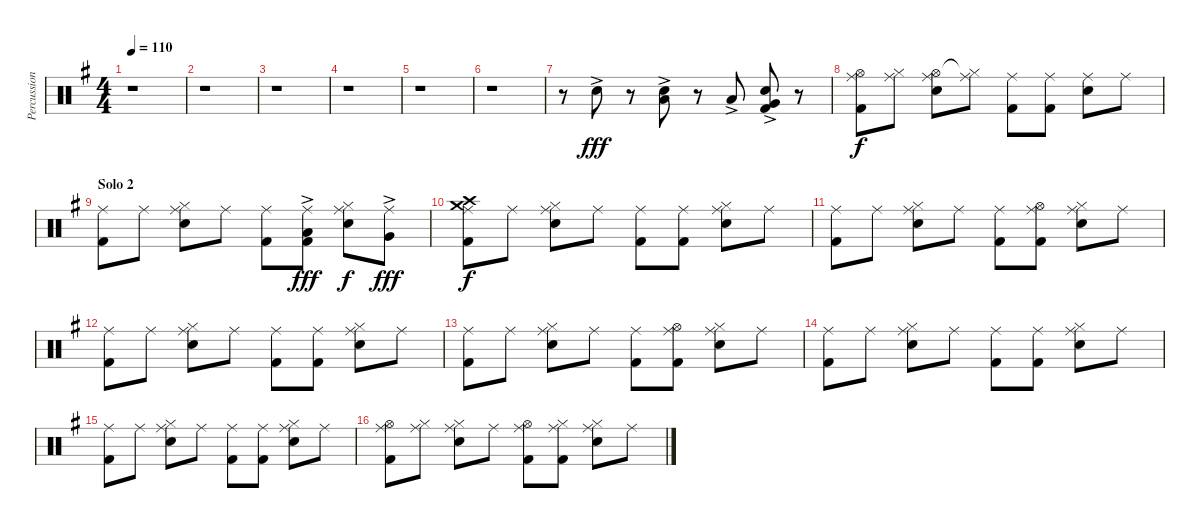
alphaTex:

\track ("Percussion" "Percussion") {instrument percussion}
\staff {score}
\articulation defaults
\ts (4 4)
\tempo 110
\clef neutral
\ks g
r.1{dy fff} |
r.1 |
r.1 |
r.1 |
r.1 |
r.1 |
r.8 "Electric Snare (hit)"{ac}.8 r.8 ("Electric Snare (hit)"{ac} "Low Tom (hit)").8 r.8 "Low Tom (hit)"{ac}.8 ("Electric Snare (hit)"{ac} "Very Low Tom (hit)" "Kick (hit) 2").8 r.8 |
("Ride (middle)" "Hi-Hat (open)" "Kick (hit) 2").8{dy f} ("Ride (middle)" "Hi-Hat (closed)").8 ("Ride (middle)" "Hi-Hat (open)" "Electric Snare (hit)").8 ("Ride (middle)" "Hi-Hat (closed)"{t}).8 ("Ride (middle)" "Kick (hit) 2").8 ("Ride (middle)" "Kick (hit) 2").8 ("Ride (middle)" "Electric Snare (hit)").8 "Ride (middle)".8 |
\section ("" "Solo 2")
("Ride (middle)" "Kick (hit) 2").8 "Ride (middle)".8 ("Ride (middle)" "Hi-Hat (closed)" "Electric Snare (hit)").8 "Ride (middle)".8 ("Ride (middle)" "Kick (hit) 2").8 ("Ride (middle)" "Low Tom (hit)"{ac} "Kick (hit) 2").8{dy fff} ("Ride (middle)" "Hi-Hat (closed)" "Electric Snare (hit)").8{dy f} ("Ride (middle)" "Very Low Tom (hit)"{ac}).8{dy fff} |
("Ride (middle)" "Crash medium (hit)" "Crash high (hit)" "Kick (hit) 2").8{dy f} "Ride (middle)".8 ("Ride (middle)" "Hi-Hat (closed)" "Electric Snare (hit)").8 "Ride (middle)".8 ("Ride (middle)" "Kick (hit) 2").8 ("Ride (middle)" "Kick (hit) 2").8 ("Ride (middle)" "Hi-Hat (closed)" "Electric Snare (hit)").8 "Ride (middle)".8 |
("Ride (middle)" "Kick (hit) 2").8 "Ride (middle)".8 ("Ride (middle)" "Hi-Hat (closed)" "Electric Snare (hit)").8 "Ride (middle)".8 ("Ride (middle)" "Kick (hit) 2").8 ("Ride (middle)" "Hi-Hat (open)" "Kick (hit) 2").8 ("Ride (middle)" "Hi-Hat (closed)" "Electric Snare (hit)").8 "Ride (middle)".8 |
("Ride (middle)" "Kick (hit) 2").8 "Ride (middle)".8 ("Ride (middle)" "Hi-Hat (closed)" "Electric Snare (hit)").8 "Ride (middle)".8 ("Ride (middle)" "Kick (hit) 2").8 ("Ride (middle)" "Kick (hit) 2").8 ("Ride (middle)" "Hi-Hat (closed)" "Electric Snare (hit)").8 "Ride (middle)".8 |
("Ride (middle)" "Kick (hit) 2").8 "Ride (middle)".8 ("Ride (middle)" "Hi-Hat (closed)" "Electric Snare (hit)").8 "Ride (middle)".8 ("Ride (middle)" "Kick (hit) 2").8 ("Ride (middle)" "Hi-Hat (open)" "Kick (hit) 2").8 ("Ride (middle)" "Hi-Hat (closed)" "Electric Snare (hit)").8 "Ride (middle)".8 |
("Ride (middle)" "Kick (hit) 2").8 "Ride (middle)".8 ("Ride (middle)" "Hi-Hat (closed)" "Electric Snare (hit)").8 "Ride (middle)".8 ("Ride (middle)" "Kick (hit) 2").8 ("Ride (middle)" "Kick (hit) 2").8 ("Ride (middle)" "Hi-Hat (closed)" "Electric Snare (hit)").8 "Ride (middle)".8 |
("Ride (middle)" "Kick (hit) 2").8 "Ride (middle)".8 ("Ride (middle)" "Hi-Hat (closed)" "Electric Snare (hit)").8 "Ride (middle)".8 ("Ride (middle)" "Kick (hit) 2").8 ("Ride (middle)" "Kick (hit) 2").8 ("Ride (middle)" "Hi-Hat (closed)" "Electric Snare (hit)").8 "Ride (middle)".8 |
("Ride (middle)" "Hi-Hat (open)" "Kick (hit) 2").8 ("Ride (middle)" "Hi-Hat (closed)").8 ("Ride (middle)" "Hi-Hat (closed)" "Electric Snare (hit)").8 "Ride (middle)".8 ("Ride (middle)" "Hi-Hat (open)" "Kick (hit) 2").8 ("Ride (middle)" "Hi-Hat (closed)" "Kick (hit) 2").8 ("Ride (middle)" "Hi-Hat (closed)" "Electric Snare (hit)").8 "Ride (middle)".8
